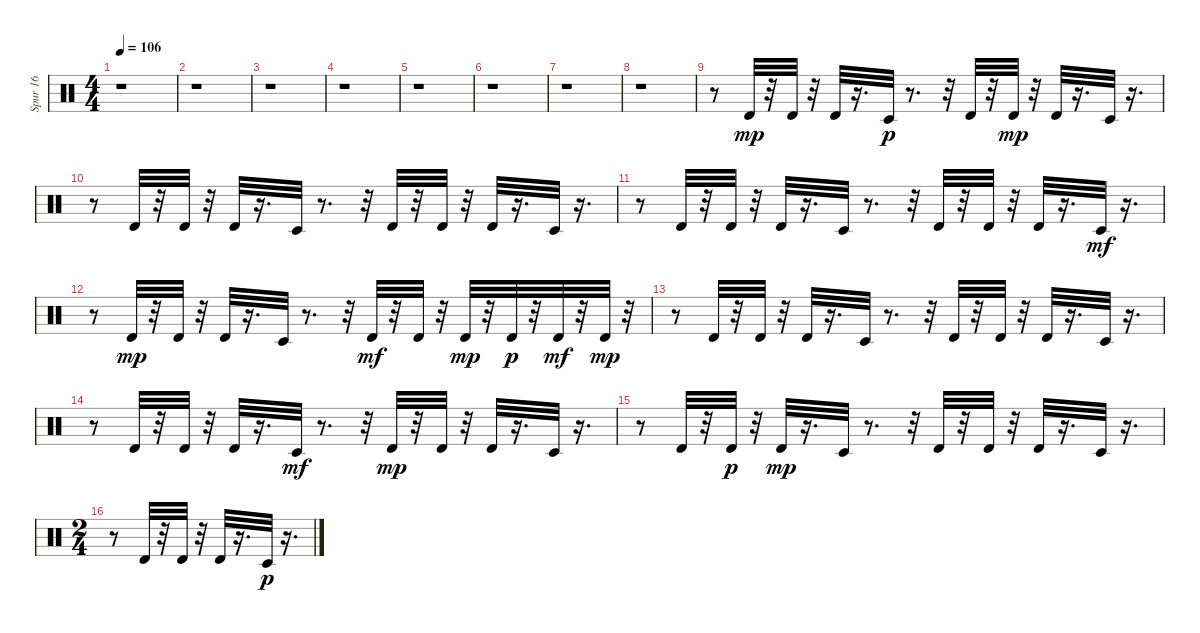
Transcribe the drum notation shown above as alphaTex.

\track ("Spur 16" "Spur 16") {instrument percussion}
\staff {score}
\articulation defaults
\ts (4 4)
\tempo 106
\clef neutral
\ks c
r.1{dy mf} |
r.1 |
r.1 |
r.1 |
r.1 |
r.1 |
r.1 |
r.1 |
r.8 "Timbale high (hit)".32{dy mp} r.32 "Timbale high (hit)".32 r.32 "Timbale high (hit)".32 r.16{d} "Timbale low (hit)".32{dy p} r.8{d} r.32 "Timbale high (hit)".32 r.32 "Timbale high (hit)".32{dy mp} r.32 "Timbale high (hit)".32 r.16{d} "Timbale low (hit)".32 r.16{d} |
r.8 "Timbale high (hit)".32 r.32 "Timbale high (hit)".32 r.32 "Timbale high (hit)".32 r.16{d} "Timbale low (hit)".32 r.8{d} r.32 "Timbale high (hit)".32 r.32 "Timbale high (hit)".32 r.32 "Timbale high (hit)".32 r.16{d} "Timbale low (hit)".32 r.16{d} |
r.8 "Timbale high (hit)".32 r.32 "Timbale high (hit)".32 r.32 "Timbale high (hit)".32 r.16{d} "Timbale low (hit)".32 r.8{d} r.32 "Timbale high (hit)".32 r.32 "Timbale high (hit)".32 r.32 "Timbale high (hit)".32 r.16{d} "Timbale low (hit)".32{dy mf} r.16{d} |
r.8 "Timbale high (hit)".32{dy mp} r.32 "Timbale high (hit)".32 r.32 "Timbale high (hit)".32 r.16{d} "Timbale low (hit)".32 r.8{d} r.32 "Timbale high (hit)".32{dy mf} r.32 "Timbale high (hit)".32 r.32 "Timbale high (hit)".32{dy mp} r.32 "Timbale high (hit)".32{dy p} r.32 "Timbale high (hit)".32{dy mf} r.32 "Timbale high (hit)".32{dy mp} r.32 |
r.8 "Timbale high (hit)".32 r.32 "Timbale high (hit)".32 r.32 "Timbale high (hit)".32 r.16{d} "Timbale low (hit)".32 r.8{d} r.32 "Timbale high (hit)".32 r.32 "Timbale high (hit)".32 r.32 "Timbale high (hit)".32 r.16{d} "Timbale low (hit)".32 r.16{d} |
r.8 "Timbale high (hit)".32 r.32 "Timbale high (hit)".32 r.32 "Timbale high (hit)".32 r.16{d} "Timbale low (hit)".32{dy mf} r.8{d} r.32 "Timbale high (hit)".32{dy mp} r.32 "Timbale high (hit)".32 r.32 "Timbale high (hit)".32 r.16{d} "Timbale low (hit)".32 r.16{d} |
r.8 "Timbale high (hit)".32 r.32 "Timbale high (hit)".32{dy p} r.32 "Timbale high (hit)".32{dy mp} r.16{d} "Timbale low (hit)".32 r.8{d} r.32 "Timbale high (hit)".32 r.32 "Timbale high (hit)".32 r.32 "Timbale high (hit)".32 r.16{d} "Timbale low (hit)".32 r.16{d} |
\ts (2 4)
r.8 "Timbale high (hit)".32 r.32 "Timbale high (hit)".32 r.32 "Timbale high (hit)".32 r.16{d} "Timbale low (hit)".32{dy p} r.16{d}
